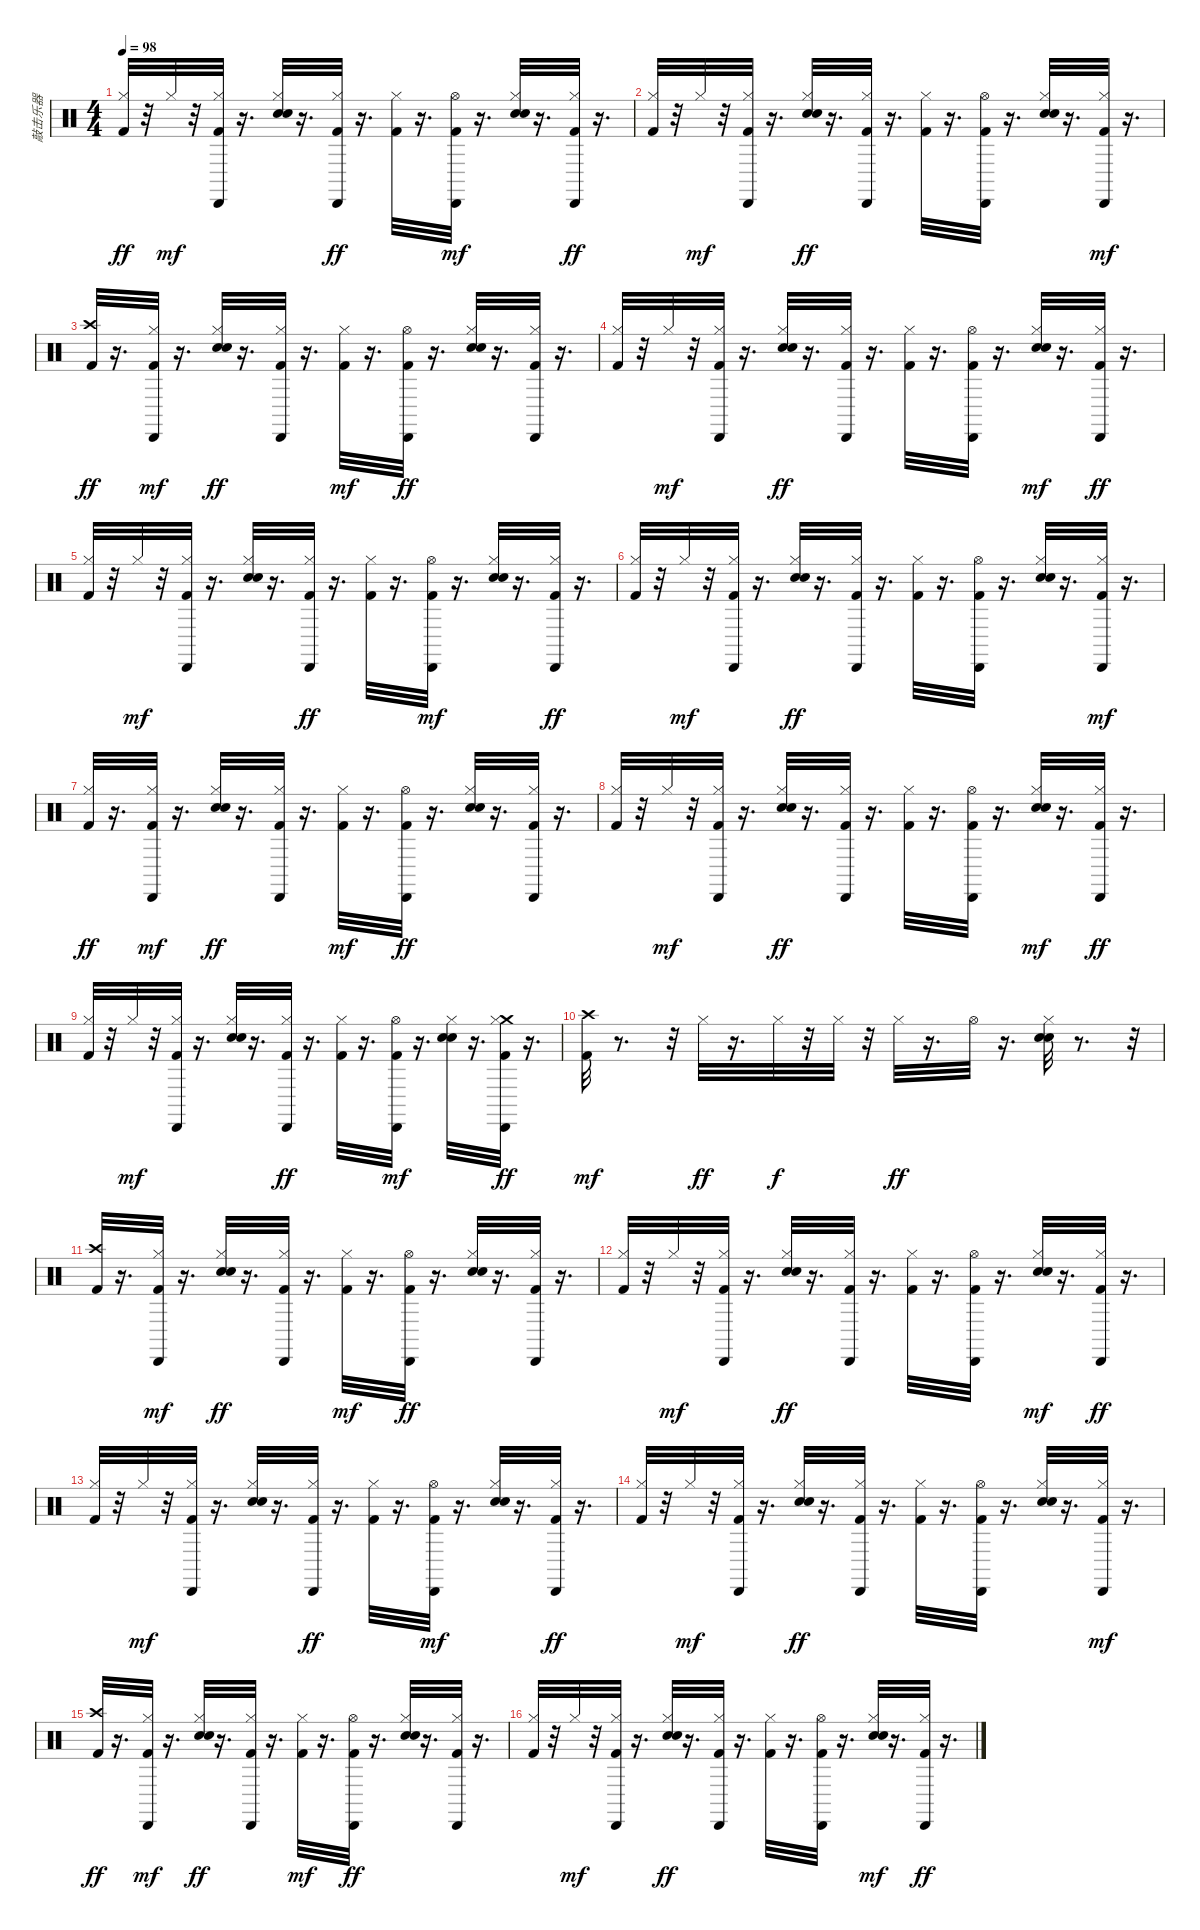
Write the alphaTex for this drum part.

\track ("敲击乐器" "敲击乐器") {instrument percussion}
\staff {score}
\articulation defaults
\ts (4 4)
\tempo 98
\clef neutral
\ks c
("Kick (hit) 2" "Hi-Hat (closed)").32{dy ff} r.32 "Hi-Hat (closed)".32{dy mf} r.32 ("Kick (hit) 2" "Hi-Hat (closed)" "Cabasa (hit)").32 r.16{d} ("Hand Clap (hit)" "Snare (hit) 2" "Hi-Hat (closed)").32 r.16{d} ("Hi-Hat (closed)" "Cabasa (hit)" "Kick (hit) 2").32{dy ff} r.16{d} ("Kick (hit) 2" "Hi-Hat (closed)").32 r.16{d} ("Hi-Hat (open)" "Kick (hit) 2" "Cabasa (hit)").32{dy mf} r.16{d} ("Hand Clap (hit)" "Snare (hit) 2" "Hi-Hat (closed)").32 r.16{d} ("Cabasa (hit)" "Kick (hit) 2" "Hi-Hat (closed)").32{dy ff} r.16{d} |
("Kick (hit) 2" "Hi-Hat (closed)").32 r.32 "Hi-Hat (closed)".32{dy mf} r.32 ("Cabasa (hit)" "Kick (hit) 2" "Hi-Hat (closed)").32 r.16{d} ("Hi-Hat (closed)" "Hand Clap (hit)" "Snare (hit) 2").32{dy ff} r.16{d} ("Cabasa (hit)" "Hi-Hat (closed)" "Kick (hit) 2").32 r.16{d} ("Kick (hit) 2" "Hi-Hat (closed)").32 r.16{d} ("Kick (hit) 2" "Cabasa (hit)" "Hi-Hat (open)").32 r.16{d} ("Hi-Hat (closed)" "Hand Clap (hit)" "Snare (hit) 2").32 r.16{d} ("Kick (hit) 2" "Hi-Hat (closed)" "Cabasa (hit)").32{dy mf} r.16{d} |
("Crash high (hit)" "Kick (hit) 2").32{dy ff} r.16{d} ("Cabasa (hit)" "Hi-Hat (closed)" "Kick (hit) 2").32{dy mf} r.16{d} ("Hi-Hat (closed)" "Snare (hit) 2" "Hand Clap (hit)").32{dy ff} r.16{d} ("Cabasa (hit)" "Kick (hit) 2" "Hi-Hat (closed)").32 r.16{d} ("Kick (hit) 2" "Hi-Hat (closed)").32{dy mf} r.16{d} ("Cabasa (hit)" "Kick (hit) 2" "Hi-Hat (open)").32{dy ff} r.16{d} ("Hi-Hat (closed)" "Snare (hit) 2" "Hand Clap (hit)").32 r.16{d} ("Cabasa (hit)" "Hi-Hat (closed)" "Kick (hit) 2").32 r.16{d} |
("Kick (hit) 2" "Hi-Hat (closed)").32 r.32 "Hi-Hat (closed)".32{dy mf} r.32 ("Cabasa (hit)" "Kick (hit) 2" "Hi-Hat (closed)").32 r.16{d} ("Hi-Hat (closed)" "Hand Clap (hit)" "Snare (hit) 2").32{dy ff} r.16{d} ("Cabasa (hit)" "Hi-Hat (closed)" "Kick (hit) 2").32 r.16{d} ("Kick (hit) 2" "Hi-Hat (closed)").32 r.16{d} ("Cabasa (hit)" "Kick (hit) 2" "Hi-Hat (open)").32 r.16{d} ("Snare (hit) 2" "Hand Clap (hit)" "Hi-Hat (closed)").32{dy mf} r.16{d} ("Kick (hit) 2" "Cabasa (hit)" "Hi-Hat (closed)").32{dy ff} r.16{d} |
("Kick (hit) 2" "Hi-Hat (closed)").32 r.32 "Hi-Hat (closed)".32{dy mf} r.32 ("Kick (hit) 2" "Hi-Hat (closed)" "Cabasa (hit)").32 r.16{d} ("Hand Clap (hit)" "Snare (hit) 2" "Hi-Hat (closed)").32 r.16{d} ("Hi-Hat (closed)" "Cabasa (hit)" "Kick (hit) 2").32{dy ff} r.16{d} ("Kick (hit) 2" "Hi-Hat (closed)").32 r.16{d} ("Hi-Hat (open)" "Kick (hit) 2" "Cabasa (hit)").32{dy mf} r.16{d} ("Hand Clap (hit)" "Snare (hit) 2" "Hi-Hat (closed)").32 r.16{d} ("Cabasa (hit)" "Kick (hit) 2" "Hi-Hat (closed)").32{dy ff} r.16{d} |
("Kick (hit) 2" "Hi-Hat (closed)").32 r.32 "Hi-Hat (closed)".32{dy mf} r.32 ("Cabasa (hit)" "Kick (hit) 2" "Hi-Hat (closed)").32 r.16{d} ("Hi-Hat (closed)" "Hand Clap (hit)" "Snare (hit) 2").32{dy ff} r.16{d} ("Cabasa (hit)" "Hi-Hat (closed)" "Kick (hit) 2").32 r.16{d} ("Kick (hit) 2" "Hi-Hat (closed)").32 r.16{d} ("Kick (hit) 2" "Cabasa (hit)" "Hi-Hat (open)").32 r.16{d} ("Hi-Hat (closed)" "Hand Clap (hit)" "Snare (hit) 2").32 r.16{d} ("Kick (hit) 2" "Hi-Hat (closed)" "Cabasa (hit)").32{dy mf} r.16{d} |
("Hi-Hat (closed)" "Kick (hit) 2").32{dy ff} r.16{d} ("Cabasa (hit)" "Hi-Hat (closed)" "Kick (hit) 2").32{dy mf} r.16{d} ("Hi-Hat (closed)" "Snare (hit) 2" "Hand Clap (hit)").32{dy ff} r.16{d} ("Cabasa (hit)" "Kick (hit) 2" "Hi-Hat (closed)").32 r.16{d} ("Kick (hit) 2" "Hi-Hat (closed)").32{dy mf} r.16{d} ("Cabasa (hit)" "Kick (hit) 2" "Hi-Hat (open)").32{dy ff} r.16{d} ("Hi-Hat (closed)" "Snare (hit) 2" "Hand Clap (hit)").32 r.16{d} ("Cabasa (hit)" "Hi-Hat (closed)" "Kick (hit) 2").32 r.16{d} |
("Kick (hit) 2" "Hi-Hat (closed)").32 r.32 "Hi-Hat (closed)".32{dy mf} r.32 ("Cabasa (hit)" "Kick (hit) 2" "Hi-Hat (closed)").32 r.16{d} ("Hi-Hat (closed)" "Hand Clap (hit)" "Snare (hit) 2").32{dy ff} r.16{d} ("Cabasa (hit)" "Hi-Hat (closed)" "Kick (hit) 2").32 r.16{d} ("Kick (hit) 2" "Hi-Hat (closed)").32 r.16{d} ("Cabasa (hit)" "Kick (hit) 2" "Hi-Hat (open)").32 r.16{d} ("Snare (hit) 2" "Hand Clap (hit)" "Hi-Hat (closed)").32{dy mf} r.16{d} ("Kick (hit) 2" "Cabasa (hit)" "Hi-Hat (closed)").32{dy ff} r.16{d} |
("Kick (hit) 2" "Hi-Hat (closed)").32 r.32 "Hi-Hat (closed)".32{dy mf} r.32 ("Kick (hit) 2" "Hi-Hat (closed)" "Cabasa (hit)").32 r.16{d} ("Hand Clap (hit)" "Snare (hit) 2" "Hi-Hat (closed)").32 r.16{d} ("Hi-Hat (closed)" "Cabasa (hit)" "Kick (hit) 2").32{dy ff} r.16{d} ("Kick (hit) 2" "Hi-Hat (closed)").32 r.16{d} ("Hi-Hat (open)" "Kick (hit) 2" "Cabasa (hit)").32{dy mf} r.16{d} ("Hand Clap (hit)" "Snare (hit) 2" "Hi-Hat (closed)").32 r.16{d} ("Crash medium (hit)" "Cabasa (hit)" "Kick (hit) 2" "Hi-Hat (closed)").32{dy ff} r.16{d} |
("Kick (hit) 2" "Crash high (hit)").32{dy mf} r.8{d} r.32 "Hi-Hat (closed)".32{dy ff} r.16{d} "Hi-Hat (closed)".32{dy f} r.32 "Hi-Hat (closed)".32 r.32 "Hi-Hat (closed)".32{dy ff} r.16{d} "Hi-Hat (open)".32 r.16{d} ("Hi-Hat (closed)" "Hand Clap (hit)" "Snare (hit) 2").32 r.8{d} r.32 |
("Crash high (hit)" "Kick (hit) 2").32 r.16{d} ("Cabasa (hit)" "Hi-Hat (closed)" "Kick (hit) 2").32{dy mf} r.16{d} ("Hi-Hat (closed)" "Snare (hit) 2" "Hand Clap (hit)").32{dy ff} r.16{d} ("Cabasa (hit)" "Kick (hit) 2" "Hi-Hat (closed)").32 r.16{d} ("Kick (hit) 2" "Hi-Hat (closed)").32{dy mf} r.16{d} ("Cabasa (hit)" "Kick (hit) 2" "Hi-Hat (open)").32{dy ff} r.16{d} ("Hi-Hat (closed)" "Snare (hit) 2" "Hand Clap (hit)").32 r.16{d} ("Cabasa (hit)" "Hi-Hat (closed)" "Kick (hit) 2").32 r.16{d} |
("Kick (hit) 2" "Hi-Hat (closed)").32 r.32 "Hi-Hat (closed)".32{dy mf} r.32 ("Cabasa (hit)" "Kick (hit) 2" "Hi-Hat (closed)").32 r.16{d} ("Hi-Hat (closed)" "Hand Clap (hit)" "Snare (hit) 2").32{dy ff} r.16{d} ("Cabasa (hit)" "Hi-Hat (closed)" "Kick (hit) 2").32 r.16{d} ("Kick (hit) 2" "Hi-Hat (closed)").32 r.16{d} ("Cabasa (hit)" "Kick (hit) 2" "Hi-Hat (open)").32 r.16{d} ("Snare (hit) 2" "Hand Clap (hit)" "Hi-Hat (closed)").32{dy mf} r.16{d} ("Kick (hit) 2" "Cabasa (hit)" "Hi-Hat (closed)").32{dy ff} r.16{d} |
("Kick (hit) 2" "Hi-Hat (closed)").32 r.32 "Hi-Hat (closed)".32{dy mf} r.32 ("Kick (hit) 2" "Hi-Hat (closed)" "Cabasa (hit)").32 r.16{d} ("Hand Clap (hit)" "Snare (hit) 2" "Hi-Hat (closed)").32 r.16{d} ("Hi-Hat (closed)" "Cabasa (hit)" "Kick (hit) 2").32{dy ff} r.16{d} ("Kick (hit) 2" "Hi-Hat (closed)").32 r.16{d} ("Hi-Hat (open)" "Kick (hit) 2" "Cabasa (hit)").32{dy mf} r.16{d} ("Hand Clap (hit)" "Snare (hit) 2" "Hi-Hat (closed)").32 r.16{d} ("Cabasa (hit)" "Kick (hit) 2" "Hi-Hat (closed)").32{dy ff} r.16{d} |
("Kick (hit) 2" "Hi-Hat (closed)").32 r.32 "Hi-Hat (closed)".32{dy mf} r.32 ("Cabasa (hit)" "Kick (hit) 2" "Hi-Hat (closed)").32 r.16{d} ("Hi-Hat (closed)" "Hand Clap (hit)" "Snare (hit) 2").32{dy ff} r.16{d} ("Cabasa (hit)" "Hi-Hat (closed)" "Kick (hit) 2").32 r.16{d} ("Kick (hit) 2" "Hi-Hat (closed)").32 r.16{d} ("Kick (hit) 2" "Cabasa (hit)" "Hi-Hat (open)").32 r.16{d} ("Hi-Hat (closed)" "Hand Clap (hit)" "Snare (hit) 2").32 r.16{d} ("Kick (hit) 2" "Hi-Hat (closed)" "Cabasa (hit)").32{dy mf} r.16{d} |
("Crash high (hit)" "Kick (hit) 2").32{dy ff} r.16{d} ("Cabasa (hit)" "Hi-Hat (closed)" "Kick (hit) 2").32{dy mf} r.16{d} ("Hi-Hat (closed)" "Snare (hit) 2" "Hand Clap (hit)").32{dy ff} r.16{d} ("Cabasa (hit)" "Kick (hit) 2" "Hi-Hat (closed)").32 r.16{d} ("Kick (hit) 2" "Hi-Hat (closed)").32{dy mf} r.16{d} ("Cabasa (hit)" "Kick (hit) 2" "Hi-Hat (open)").32{dy ff} r.16{d} ("Hi-Hat (closed)" "Snare (hit) 2" "Hand Clap (hit)").32 r.16{d} ("Cabasa (hit)" "Hi-Hat (closed)" "Kick (hit) 2").32 r.16{d} |
("Kick (hit) 2" "Hi-Hat (closed)").32 r.32 "Hi-Hat (closed)".32{dy mf} r.32 ("Cabasa (hit)" "Kick (hit) 2" "Hi-Hat (closed)").32 r.16{d} ("Hi-Hat (closed)" "Hand Clap (hit)" "Snare (hit) 2").32{dy ff} r.16{d} ("Cabasa (hit)" "Hi-Hat (closed)" "Kick (hit) 2").32 r.16{d} ("Kick (hit) 2" "Hi-Hat (closed)").32 r.16{d} ("Cabasa (hit)" "Kick (hit) 2" "Hi-Hat (open)").32 r.16{d} ("Snare (hit) 2" "Hand Clap (hit)" "Hi-Hat (closed)").32{dy mf} r.16{d} ("Kick (hit) 2" "Cabasa (hit)" "Hi-Hat (closed)").32{dy ff} r.16{d}
